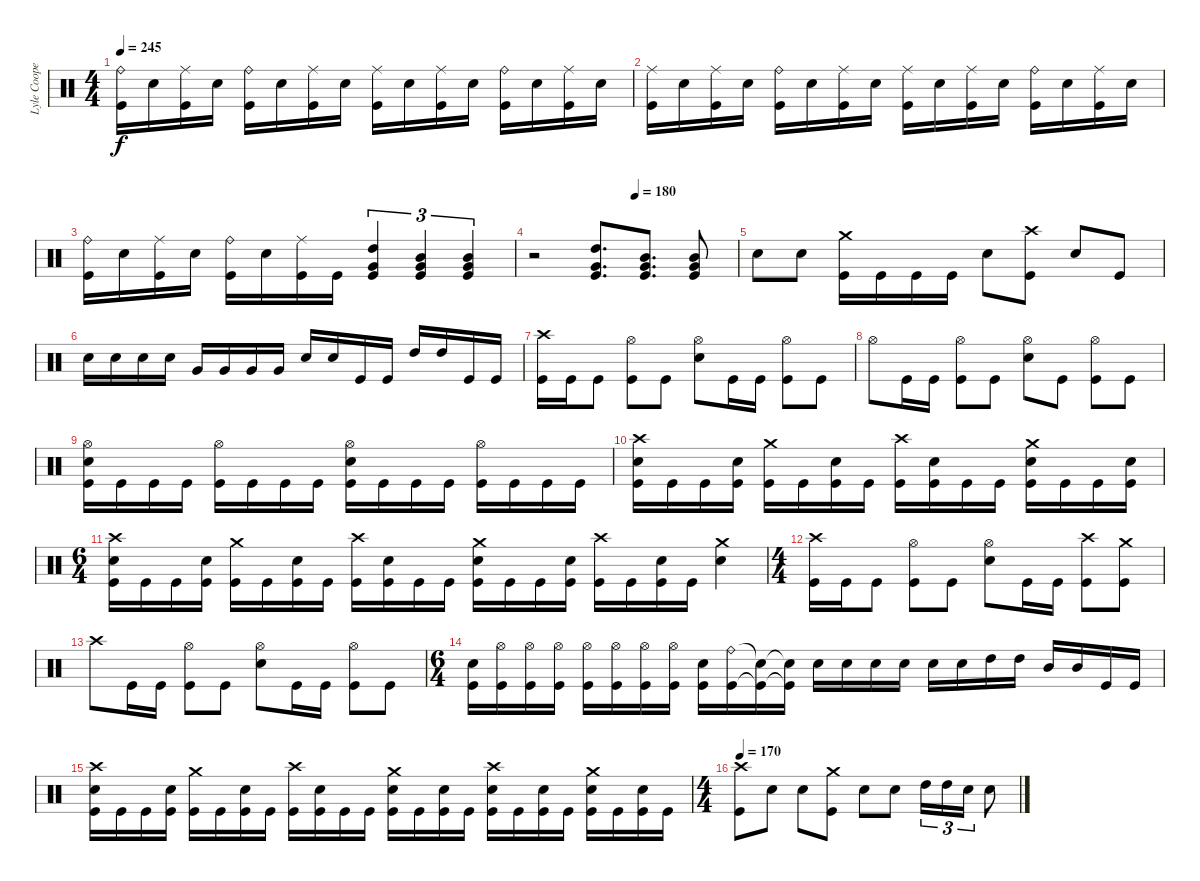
\track ("Lyle Cooper" "Lyle Coope") {instrument percussion}
\staff {score}
\articulation defaults
\ts (4 4)
\tempo 245
\clef neutral
\ks c
("Ride (bell)" "Kick (hit)").16{dy f} "Snare (hit) 2".16 ("Ride (middle)" "Kick (hit)").16 "Snare (hit) 2".16 ("Ride (bell)" "Kick (hit)").16 "Snare (hit) 2".16 ("Ride (middle)" "Kick (hit)").16 "Snare (hit) 2".16 ("Ride (middle)" "Kick (hit)").16 "Snare (hit) 2".16 ("Ride (middle)" "Kick (hit)").16 "Snare (hit) 2".16 ("Ride (bell)" "Kick (hit)").16 "Snare (hit) 2".16 ("Ride (middle)" "Kick (hit)").16 "Snare (hit) 2".16 |
("Ride (middle)" "Kick (hit)").16 "Snare (hit) 2".16 ("Ride (middle)" "Kick (hit)").16 "Snare (hit) 2".16 ("Ride (bell)" "Kick (hit)").16 "Snare (hit) 2".16 ("Ride (middle)" "Kick (hit)").16 "Snare (hit) 2".16 ("Ride (middle)" "Kick (hit)").16 "Snare (hit) 2".16 ("Ride (middle)" "Kick (hit)").16 "Snare (hit) 2".16 ("Ride (bell)" "Kick (hit)").16 "Snare (hit) 2".16 ("Ride (middle)" "Kick (hit)").16 "Snare (hit) 2".16 |
("Ride (bell)" "Kick (hit)").16 "Snare (hit) 2".16 ("Ride (middle)" "Kick (hit)").16 "Snare (hit) 2".16 ("Ride (bell)" "Kick (hit)").16 "Snare (hit) 2".16 ("Ride (middle)" "Kick (hit)").16 "Kick (hit)".16 ("Very Low Tom (hit)" "High Tom (hit)" "Kick (hit)").4{tu (3 2)} ("Very Low Tom (hit)" "Mid Tom (hit)" "Kick (hit)").4{tu (3 2)} ("Very Low Tom (hit)" "Mid Tom (hit)" "Kick (hit)").4{tu (3 2)} |
\tempo (180 0.5)
r.2 ("Very Low Tom (hit)" "High Tom (hit)" "Kick (hit)").8{d} ("Very Low Tom (hit)" "Mid Tom (hit)" "Kick (hit)").8{d} ("Very Low Tom (hit)" "Mid Tom (hit)" "Kick (hit)").8 |
"Snare (hit) 2".8 "Snare (hit) 2".8 ("Crash medium (hit)" "Kick (hit)").16 "Kick (hit)".16 "Kick (hit)".16 "Kick (hit)".16 "Snare (hit) 2".8 ("Crash high (hit)" "Kick (hit)").8 "Snare (hit) 2".8 "Kick (hit)".8 |
"Snare (hit) 2".16 "Snare (hit) 2".16 "Snare (hit) 2".16 "Snare (hit) 2".16 "Very Low Tom (hit)".16 "Very Low Tom (hit)".16 "Very Low Tom (hit)".16 "Very Low Tom (hit)".16 "Snare (hit) 2".16 "Snare (hit) 2".16 "Kick (hit)".16 "Kick (hit)".16 "High Tom (hit)".16 "High Tom (hit)".16 "Kick (hit)".16 "Kick (hit)".16 |
("Crash high (hit)" "Kick (hit)").16 "Kick (hit)".16 "Kick (hit)".8 ("Hi-Hat (open)" "Kick (hit)").8 "Kick (hit)".8 ("Hi-Hat (open)" "Snare (hit) 2").8 "Kick (hit)".16 "Kick (hit)".16 ("Hi-Hat (open)" "Kick (hit)").8 "Kick (hit)".8 |
"Hi-Hat (open)".8 "Kick (hit)".16 "Kick (hit)".16 ("Hi-Hat (open)" "Kick (hit)").8 "Kick (hit)".8 ("Hi-Hat (open)" "Snare (hit) 2").8 "Kick (hit)".8 ("Hi-Hat (open)" "Kick (hit)").8 "Kick (hit)".8 |
("Hi-Hat (open)" "Snare (hit) 2" "Kick (hit)").16 "Kick (hit)".16 "Kick (hit)".16 "Kick (hit)".16 ("Hi-Hat (open)" "Kick (hit)").16 "Kick (hit)".16 "Kick (hit)".16 "Kick (hit)".16 ("Hi-Hat (open)" "Snare (hit) 2" "Kick (hit)").16 "Kick (hit)".16 "Kick (hit)".16 "Kick (hit)".16 ("Hi-Hat (open)" "Kick (hit)").16 "Kick (hit)".16 "Kick (hit)".16 "Kick (hit)".16 |
("Crash high (hit)" "Snare (hit) 2" "Kick (hit)").16 "Kick (hit)".16 "Kick (hit)".16 ("Snare (hit) 2" "Kick (hit)").16 ("Crash medium (hit)" "Kick (hit)").16 "Kick (hit)".16 ("Snare (hit) 2" "Kick (hit)").16 "Kick (hit)".16 ("Crash high (hit)" "Kick (hit)").16 ("Snare (hit) 2" "Kick (hit)").16 "Kick (hit)".16 "Kick (hit)".16 ("Crash medium (hit)" "Snare (hit) 2" "Kick (hit)").16 "Kick (hit)".16 "Kick (hit)".16 ("Snare (hit) 2" "Kick (hit)").16 |
\ts (6 4)
("Crash high (hit)" "Snare (hit) 2" "Kick (hit)").16 "Kick (hit)".16 "Kick (hit)".16 ("Snare (hit) 2" "Kick (hit)").16 ("Crash medium (hit)" "Kick (hit)").16 "Kick (hit)".16 ("Snare (hit) 2" "Kick (hit)").16 "Kick (hit)".16 ("Crash high (hit)" "Kick (hit)").16 ("Snare (hit) 2" "Kick (hit)").16 "Kick (hit)".16 "Kick (hit)".16 ("Crash medium (hit)" "Snare (hit) 2" "Kick (hit)").16 "Kick (hit)".16 "Kick (hit)".16 ("Snare (hit) 2" "Kick (hit)").16 ("Crash high (hit)" "Kick (hit)").16 "Kick (hit)".16 ("Snare (hit) 2" "Kick (hit)").16 "Kick (hit)".16 ("Crash medium (hit)" "Snare (hit) 2").4 |
\ts (4 4)
("Crash high (hit)" "Kick (hit)").16 "Kick (hit)".16 "Kick (hit)".8 ("Hi-Hat (open)" "Kick (hit)").8 "Kick (hit)".8 ("Hi-Hat (open)" "Snare (hit) 2").8 "Kick (hit)".16 "Kick (hit)".16 ("Crash high (hit)" "Kick (hit)").8 ("Crash medium (hit)" "Kick (hit)").8 |
"Crash high (hit)".8 "Kick (hit)".16 "Kick (hit)".16 ("Hi-Hat (open)" "Kick (hit)").8 "Kick (hit)".8 ("Hi-Hat (open)" "Snare (hit) 2").8 "Kick (hit)".16 "Kick (hit)".16 ("Hi-Hat (open)" "Kick (hit)").8 "Kick (hit)".8 |
\ts (6 4)
("Snare (hit) 2" "Kick (hit)").16 ("Hi-Hat (open)" "Kick (hit)").16 ("Hi-Hat (open)" "Kick (hit)").16 ("Hi-Hat (open)" "Kick (hit)").16 ("Hi-Hat (open)" "Kick (hit)").16 ("Hi-Hat (open)" "Kick (hit)").16 ("Hi-Hat (open)" "Kick (hit)").16 ("Hi-Hat (open)" "Kick (hit)").16 ("Snare (hit) 2" "Kick (hit)").16 ("Ride (bell)" "Kick (hit)").16 ("Snare (hit)"{t} "Kick (hit)"{t}).16 ("Snare (hit)"{t} "Kick (hit)"{t}).16 "Snare (hit) 2".16 "Snare (hit) 2".16 "Snare (hit) 2".16 "Snare (hit) 2".16 "Snare (hit) 2".16 "Snare (hit) 2".16 "High Tom (hit)".16 "High Tom (hit)".16 "Mid Tom (hit)".16 "Mid Tom (hit)".16 "Kick (hit)".16 "Kick (hit)".16 |
("Crash high (hit)" "Snare (hit) 2" "Kick (hit)").16 "Kick (hit)".16 "Kick (hit)".16 ("Snare (hit) 2" "Kick (hit)").16 ("Crash medium (hit)" "Kick (hit)").16 "Kick (hit)".16 ("Snare (hit) 2" "Kick (hit)").16 "Kick (hit)".16 ("Crash high (hit)" "Kick (hit)").16 ("Snare (hit) 2" "Kick (hit)").16 "Kick (hit)".16 "Kick (hit)".16 ("Crash medium (hit)" "Snare (hit) 2" "Kick (hit)").16 "Kick (hit)".16 ("Snare (hit) 2" "Kick (hit)").16 "Kick (hit)".16 ("Crash high (hit)" "Snare (hit) 2" "Kick (hit)").16 "Kick (hit)".16 ("Snare (hit) 2" "Kick (hit)").16 "Kick (hit)".16 ("Crash medium (hit)" "Snare (hit) 2" "Kick (hit)").16 "Kick (hit)".16 ("Snare (hit) 2" "Kick (hit)").16 "Kick (hit)".16 |
\ts (4 4)
\tempo 170
("Crash high (hit)" "Kick (hit)").8 "Snare (hit) 2".8 "Snare (hit) 2".8 ("Crash medium (hit)" "Kick (hit)").8 "Snare (hit) 2".8 "Snare (hit) 2".8 "High Tom (hit)".16{tu (3 2)} "High Tom (hit)".16{tu (3 2)} "Snare (hit) 2".16{tu (3 2)} "Snare (hit) 2".8
